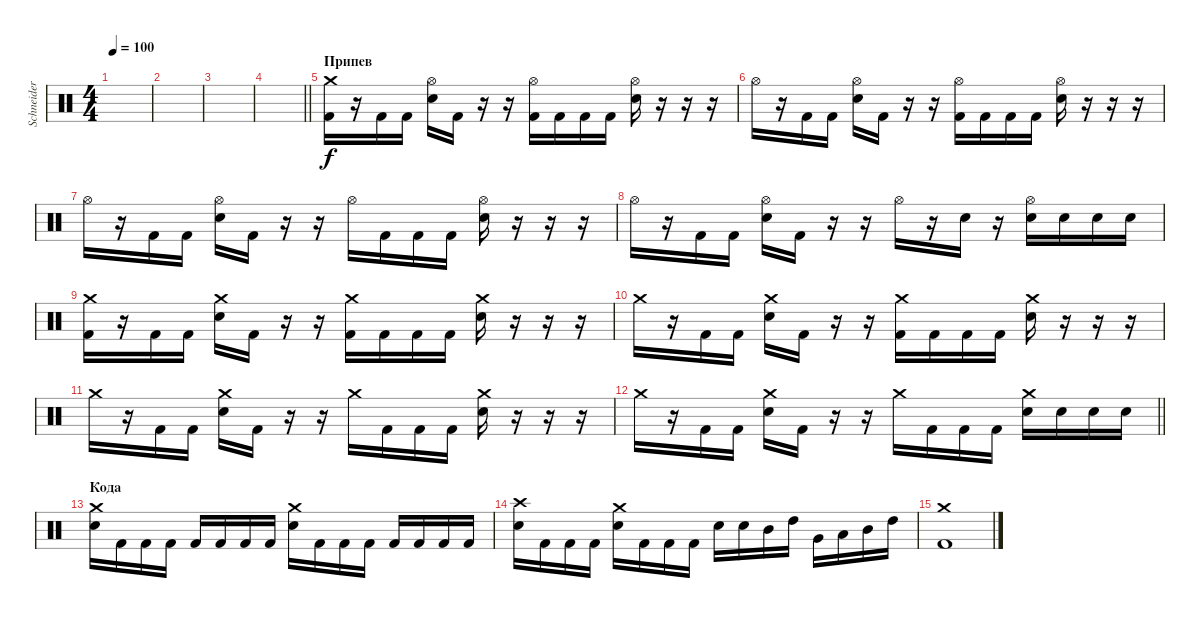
\track ("Schneider" "Schneider") {instrument percussion}
\staff {score}
\articulation defaults
\ts (4 4)
\tempo 100
\clef neutral
\ks c
|
|
|
\barLineRight lightlight
|
\section ("" "Припев")
("Crash medium (hit)" "Kick (hit) 2").16 r.16 "Kick (hit) 2".16 "Kick (hit) 2".16 ("Hi-Hat (open)" "Electric Snare (hit)").16 "Kick (hit) 2".16 r.16 r.16 ("Hi-Hat (open)" "Kick (hit) 2").16 "Kick (hit) 2".16 "Kick (hit) 2".16 "Kick (hit) 2".16 ("Hi-Hat (open)" "Electric Snare (hit)").16 r.16 r.16 r.16 |
"Hi-Hat (open)".16 r.16 "Kick (hit) 2".16 "Kick (hit) 2".16 ("Hi-Hat (open)" "Electric Snare (hit)").16 "Kick (hit) 2".16 r.16 r.16 ("Hi-Hat (open)" "Kick (hit) 2").16 "Kick (hit) 2".16 "Kick (hit) 2".16 "Kick (hit) 2".16 ("Hi-Hat (open)" "Electric Snare (hit)").16 r.16 r.16 r.16 |
"Hi-Hat (open)".16 r.16 "Kick (hit) 2".16 "Kick (hit) 2".16 ("Hi-Hat (open)" "Electric Snare (hit)").16 "Kick (hit) 2".16 r.16 r.16 "Hi-Hat (open)".16 "Kick (hit) 2".16 "Kick (hit) 2".16 "Kick (hit) 2".16 ("Hi-Hat (open)" "Electric Snare (hit)").16 r.16 r.16 r.16 |
"Hi-Hat (open)".16 r.16 "Kick (hit) 2".16 "Kick (hit) 2".16 ("Hi-Hat (open)" "Electric Snare (hit)").16 "Kick (hit) 2".16 r.16 r.16 "Hi-Hat (open)".16 r.16 "Electric Snare (hit)".16 r.16 ("Hi-Hat (open)" "Electric Snare (hit)").16 "Electric Snare (hit)".16 "Electric Snare (hit)".16 "Electric Snare (hit)".16 |
("Crash medium (hit)" "Kick (hit) 2").16 r.16 "Kick (hit) 2".16 "Kick (hit) 2".16 ("Crash medium (hit)" "Electric Snare (hit)").16 "Kick (hit) 2".16 r.16 r.16 ("Crash medium (hit)" "Kick (hit) 2").16 "Kick (hit) 2".16 "Kick (hit) 2".16 "Kick (hit) 2".16 ("Crash medium (hit)" "Electric Snare (hit)").16 r.16 r.16 r.16 |
"Crash medium (hit)".16 r.16 "Kick (hit) 2".16 "Kick (hit) 2".16 ("Crash medium (hit)" "Electric Snare (hit)").16 "Kick (hit) 2".16 r.16 r.16 ("Crash medium (hit)" "Kick (hit) 2").16 "Kick (hit) 2".16 "Kick (hit) 2".16 "Kick (hit) 2".16 ("Crash medium (hit)" "Electric Snare (hit)").16 r.16 r.16 r.16 |
"Crash medium (hit)".16 r.16 "Kick (hit) 2".16 "Kick (hit) 2".16 ("Crash medium (hit)" "Electric Snare (hit)").16 "Kick (hit) 2".16 r.16 r.16 "Crash medium (hit)".16 "Kick (hit) 2".16 "Kick (hit) 2".16 "Kick (hit) 2".16 ("Crash medium (hit)" "Electric Snare (hit)").16 r.16 r.16 r.16 |
\barLineRight lightlight "Crash medium (hit)".16
r.16 "Kick (hit) 2".16 "Kick (hit) 2".16 ("Crash medium (hit)" "Electric Snare (hit)").16 "Kick (hit) 2".16 r.16 r.16 "Crash medium (hit)".16 "Kick (hit) 2".16 "Kick (hit) 2".16 "Kick (hit) 2".16 ("Crash medium (hit)" "Electric Snare (hit)").16 "Electric Snare (hit)".16 "Electric Snare (hit)".16 "Electric Snare (hit)".16 |
\section ("" "Кода")
("Crash medium (hit)" "Electric Snare (hit)").16 "Kick (hit) 2".16 "Kick (hit) 2".16 "Kick (hit) 2".16 "Kick (hit) 2".16 "Kick (hit) 2".16 "Kick (hit) 2".16 "Kick (hit) 2".16 ("Crash medium (hit)" "Electric Snare (hit)").16 "Kick (hit) 2".16 "Kick (hit) 2".16 "Kick (hit) 2".16 "Kick (hit) 2".16 "Kick (hit) 2".16 "Kick (hit) 2".16 "Kick (hit) 2".16 |
("Crash high (hit)" "Electric Snare (hit)").16 "Kick (hit) 2".16 "Kick (hit) 2".16 "Kick (hit) 2".16 ("Crash medium (hit)" "Electric Snare (hit)").16 "Kick (hit) 2".16 "Kick (hit) 2".16 "Kick (hit) 2".16 "Electric Snare (hit)".16 "Electric Snare (hit)".16 "Mid Tom (hit)".16 "High Tom (hit)".16 "Very Low Tom (hit)".16 "Low Tom (hit)".16 "Mid Tom (hit)".16 "High Tom (hit)".16 |
("Crash medium (hit)" "Kick (hit) 2").1
